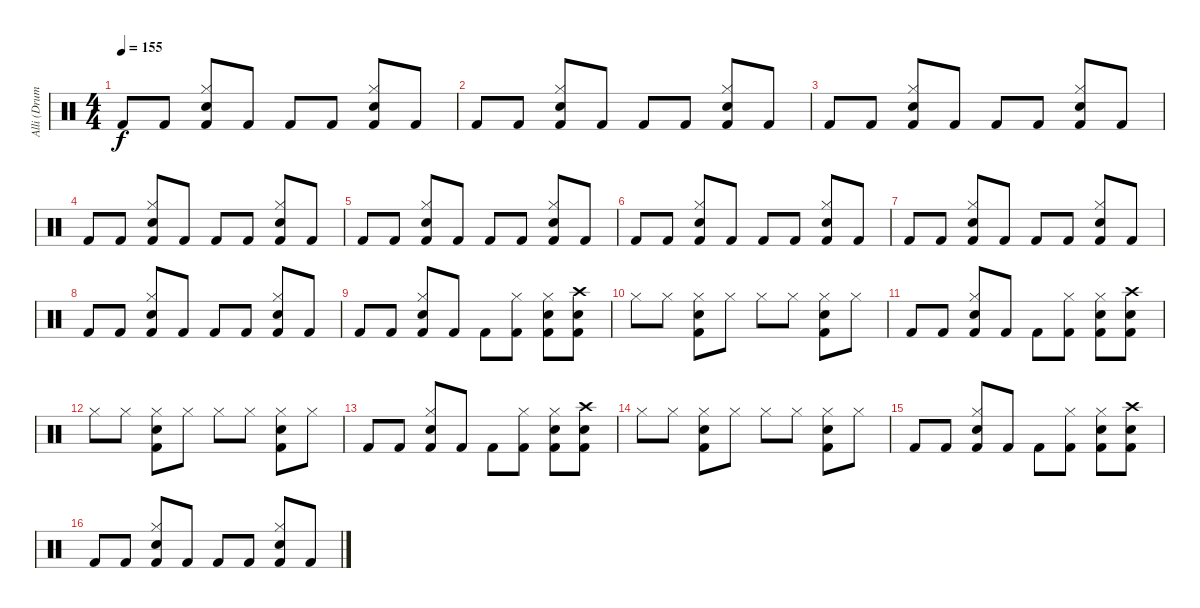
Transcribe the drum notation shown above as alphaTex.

\track ("Alli (Drums)" "Alli (Drum") {instrument percussion}
\staff {score}
\articulation defaults
\ts (4 4)
\tempo 155
\clef neutral
\ks c "Kick (hit) 2".8{dy f} "Kick (hit) 2".8
("Hi-Hat (closed)" "Snare (hit) 2" "Kick (hit) 2").8 "Kick (hit) 2".8 "Kick (hit) 2".8 "Kick (hit) 2".8 ("Hi-Hat (closed)" "Snare (hit) 2" "Kick (hit) 2").8 "Kick (hit) 2".8 |
"Kick (hit) 2".8 "Kick (hit) 2".8 ("Hi-Hat (closed)" "Snare (hit) 2" "Kick (hit) 2").8 "Kick (hit) 2".8 "Kick (hit) 2".8 "Kick (hit) 2".8 ("Hi-Hat (closed)" "Snare (hit) 2" "Kick (hit) 2").8 "Kick (hit) 2".8 |
"Kick (hit) 2".8 "Kick (hit) 2".8 ("Hi-Hat (closed)" "Snare (hit) 2" "Kick (hit) 2").8 "Kick (hit) 2".8 "Kick (hit) 2".8 "Kick (hit) 2".8 ("Hi-Hat (closed)" "Snare (hit) 2" "Kick (hit) 2").8 "Kick (hit) 2".8 |
"Kick (hit) 2".8 "Kick (hit) 2".8 ("Hi-Hat (closed)" "Snare (hit) 2" "Kick (hit) 2").8 "Kick (hit) 2".8 "Kick (hit) 2".8 "Kick (hit) 2".8 ("Hi-Hat (closed)" "Snare (hit) 2" "Kick (hit) 2").8 "Kick (hit) 2".8 |
"Kick (hit) 2".8 "Kick (hit) 2".8 ("Hi-Hat (closed)" "Snare (hit) 2" "Kick (hit) 2").8 "Kick (hit) 2".8 "Kick (hit) 2".8 "Kick (hit) 2".8 ("Hi-Hat (closed)" "Snare (hit) 2" "Kick (hit) 2").8 "Kick (hit) 2".8 |
"Kick (hit) 2".8 "Kick (hit) 2".8 ("Hi-Hat (closed)" "Snare (hit) 2" "Kick (hit) 2").8 "Kick (hit) 2".8 "Kick (hit) 2".8 "Kick (hit) 2".8 ("Hi-Hat (closed)" "Snare (hit) 2" "Kick (hit) 2").8 "Kick (hit) 2".8 |
"Kick (hit) 2".8 "Kick (hit) 2".8 ("Hi-Hat (closed)" "Snare (hit) 2" "Kick (hit) 2").8 "Kick (hit) 2".8 "Kick (hit) 2".8 "Kick (hit) 2".8 ("Hi-Hat (closed)" "Snare (hit) 2" "Kick (hit) 2").8 "Kick (hit) 2".8 |
"Kick (hit) 2".8 "Kick (hit) 2".8 ("Hi-Hat (closed)" "Snare (hit) 2" "Kick (hit) 2").8 "Kick (hit) 2".8 "Kick (hit) 2".8 "Kick (hit) 2".8 ("Hi-Hat (closed)" "Snare (hit) 2" "Kick (hit) 2").8 "Kick (hit) 2".8 |
"Kick (hit) 2".8 "Kick (hit) 2".8 ("Hi-Hat (closed)" "Snare (hit) 2" "Kick (hit) 2").8 "Kick (hit) 2".8 "Kick (hit) 2".8 ("Hi-Hat (closed)" "Kick (hit) 2").8 ("Hi-Hat (closed)" "Snare (hit) 2" "Kick (hit) 2").8 ("Crash high (hit)" "Snare (hit) 2" "Kick (hit) 2").8 |
"Hi-Hat (closed)".8 "Hi-Hat (closed)".8 ("Snare (hit) 2" "Hi-Hat (closed)" "Kick (hit) 2").8 "Hi-Hat (closed)".8 "Hi-Hat (closed)".8 "Hi-Hat (closed)".8 ("Snare (hit) 2" "Hi-Hat (closed)" "Kick (hit) 2").8 "Hi-Hat (closed)".8 |
"Kick (hit) 2".8 "Kick (hit) 2".8 ("Hi-Hat (closed)" "Snare (hit) 2" "Kick (hit) 2").8 "Kick (hit) 2".8 "Kick (hit) 2".8 ("Hi-Hat (closed)" "Kick (hit) 2").8 ("Hi-Hat (closed)" "Snare (hit) 2" "Kick (hit) 2").8 ("Crash high (hit)" "Snare (hit) 2" "Kick (hit) 2").8 |
"Hi-Hat (closed)".8 "Hi-Hat (closed)".8 ("Snare (hit) 2" "Hi-Hat (closed)" "Kick (hit) 2").8 "Hi-Hat (closed)".8 "Hi-Hat (closed)".8 "Hi-Hat (closed)".8 ("Snare (hit) 2" "Hi-Hat (closed)" "Kick (hit) 2").8 "Hi-Hat (closed)".8 |
"Kick (hit) 2".8 "Kick (hit) 2".8 ("Hi-Hat (closed)" "Snare (hit) 2" "Kick (hit) 2").8 "Kick (hit) 2".8 "Kick (hit) 2".8 ("Hi-Hat (closed)" "Kick (hit) 2").8 ("Hi-Hat (closed)" "Snare (hit) 2" "Kick (hit) 2").8 ("Crash high (hit)" "Snare (hit) 2" "Kick (hit) 2").8 |
"Hi-Hat (closed)".8 "Hi-Hat (closed)".8 ("Snare (hit) 2" "Hi-Hat (closed)" "Kick (hit) 2").8 "Hi-Hat (closed)".8 "Hi-Hat (closed)".8 "Hi-Hat (closed)".8 ("Snare (hit) 2" "Hi-Hat (closed)" "Kick (hit) 2").8 "Hi-Hat (closed)".8 |
"Kick (hit) 2".8 "Kick (hit) 2".8 ("Hi-Hat (closed)" "Snare (hit) 2" "Kick (hit) 2").8 "Kick (hit) 2".8 "Kick (hit) 2".8 ("Hi-Hat (closed)" "Kick (hit) 2").8 ("Hi-Hat (closed)" "Snare (hit) 2" "Kick (hit) 2").8 ("Crash high (hit)" "Snare (hit) 2" "Kick (hit) 2").8 |
"Kick (hit) 2".8 "Kick (hit) 2".8 ("Hi-Hat (closed)" "Snare (hit) 2" "Kick (hit) 2").8 "Kick (hit) 2".8 "Kick (hit) 2".8 "Kick (hit) 2".8 ("Hi-Hat (closed)" "Snare (hit) 2" "Kick (hit) 2").8 "Kick (hit) 2".8
